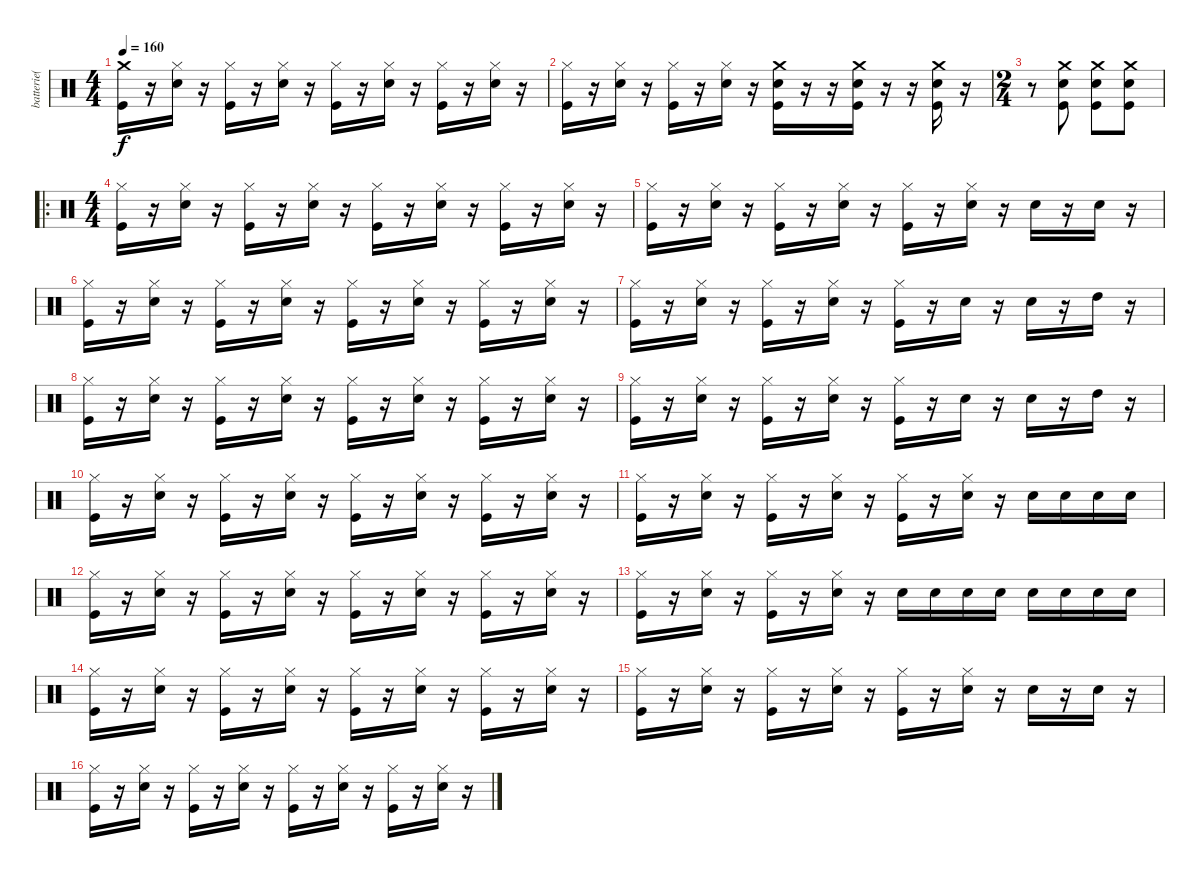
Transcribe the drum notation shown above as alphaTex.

\track ("batterie( Megger )" "batterie( ") {instrument percussion}
\staff {score}
\articulation defaults
\ts (4 4)
\tempo 160
\clef neutral
\ks c
("Crash medium (hit)" "Kick (hit)").16{dy f} r.16 ("Hi-Hat (closed)" "Snare (hit) 2").16 r.16 ("Hi-Hat (closed)" "Kick (hit)").16 r.16 ("Hi-Hat (closed)" "Snare (hit) 2").16 r.16 ("Hi-Hat (closed)" "Kick (hit)").16 r.16 ("Hi-Hat (closed)" "Snare (hit) 2").16 r.16 ("Hi-Hat (closed)" "Kick (hit)").16 r.16 ("Hi-Hat (closed)" "Snare (hit) 2").16 r.16 |
("Hi-Hat (closed)" "Kick (hit)").16 r.16 ("Hi-Hat (closed)" "Snare (hit) 2").16 r.16 ("Hi-Hat (closed)" "Kick (hit)").16 r.16 ("Hi-Hat (closed)" "Snare (hit) 2").16 r.16 ("Crash medium (hit)" "Snare (hit) 2" "Kick (hit)").16 r.16 r.16 ("Crash medium (hit)" "Snare (hit) 2" "Kick (hit)").16 r.16 r.16 ("Crash medium (hit)" "Snare (hit) 2" "Kick (hit)").16 r.16 |
\ts (2 4)
r.8 ("Crash medium (hit)" "Snare (hit) 2" "Kick (hit)").8 ("Crash medium (hit)" "Snare (hit) 2" "Kick (hit)").8 ("Crash medium (hit)" "Snare (hit) 2" "Kick (hit)").8 |
\ro
\ts (4 4)
("Hi-Hat (closed)" "Kick (hit)").16 r.16 ("Hi-Hat (closed)" "Snare (hit) 2").16 r.16 ("Hi-Hat (closed)" "Kick (hit)").16 r.16 ("Hi-Hat (closed)" "Snare (hit) 2").16 r.16 ("Hi-Hat (closed)" "Kick (hit)").16 r.16 ("Hi-Hat (closed)" "Snare (hit) 2").16 r.16 ("Hi-Hat (closed)" "Kick (hit)").16 r.16 ("Hi-Hat (closed)" "Snare (hit) 2").16 r.16 |
("Hi-Hat (closed)" "Kick (hit)").16 r.16 ("Hi-Hat (closed)" "Snare (hit) 2").16 r.16 ("Hi-Hat (closed)" "Kick (hit)").16 r.16 ("Hi-Hat (closed)" "Snare (hit) 2").16 r.16 ("Hi-Hat (closed)" "Kick (hit)").16 r.16 ("Hi-Hat (closed)" "Snare (hit) 2").16 r.16 "Snare (hit) 2".16 r.16 "Snare (hit) 2".16 r.16 |
("Hi-Hat (closed)" "Kick (hit)").16 r.16 ("Hi-Hat (closed)" "Snare (hit) 2").16 r.16 ("Hi-Hat (closed)" "Kick (hit)").16 r.16 ("Hi-Hat (closed)" "Snare (hit) 2").16 r.16 ("Hi-Hat (closed)" "Kick (hit)").16 r.16 ("Hi-Hat (closed)" "Snare (hit) 2").16 r.16 ("Hi-Hat (closed)" "Kick (hit)").16 r.16 ("Hi-Hat (closed)" "Snare (hit) 2").16 r.16 |
("Hi-Hat (closed)" "Kick (hit)").16 r.16 ("Hi-Hat (closed)" "Snare (hit) 2").16 r.16 ("Hi-Hat (closed)" "Kick (hit)").16 r.16 ("Hi-Hat (closed)" "Snare (hit) 2").16 r.16 ("Hi-Hat (closed)" "Kick (hit)").16 r.16 "Snare (hit) 2".16 r.16 "Snare (hit) 2".16 r.16 "High Tom (hit)".16 r.16 |
("Hi-Hat (closed)" "Kick (hit)").16 r.16 ("Hi-Hat (closed)" "Snare (hit) 2").16 r.16 ("Hi-Hat (closed)" "Kick (hit)").16 r.16 ("Hi-Hat (closed)" "Snare (hit) 2").16 r.16 ("Hi-Hat (closed)" "Kick (hit)").16 r.16 ("Hi-Hat (closed)" "Snare (hit) 2").16 r.16 ("Hi-Hat (closed)" "Kick (hit)").16 r.16 ("Hi-Hat (closed)" "Snare (hit) 2").16 r.16 |
("Hi-Hat (closed)" "Kick (hit)").16 r.16 ("Hi-Hat (closed)" "Snare (hit) 2").16 r.16 ("Hi-Hat (closed)" "Kick (hit)").16 r.16 ("Hi-Hat (closed)" "Snare (hit) 2").16 r.16 ("Hi-Hat (closed)" "Kick (hit)").16 r.16 "Snare (hit) 2".16 r.16 "Snare (hit) 2".16 r.16 "High Tom (hit)".16 r.16 |
("Hi-Hat (closed)" "Kick (hit)").16 r.16 ("Hi-Hat (closed)" "Snare (hit) 2").16 r.16 ("Hi-Hat (closed)" "Kick (hit)").16 r.16 ("Hi-Hat (closed)" "Snare (hit) 2").16 r.16 ("Hi-Hat (closed)" "Kick (hit)").16 r.16 ("Hi-Hat (closed)" "Snare (hit) 2").16 r.16 ("Hi-Hat (closed)" "Kick (hit)").16 r.16 ("Hi-Hat (closed)" "Snare (hit) 2").16 r.16 |
("Hi-Hat (closed)" "Kick (hit)").16 r.16 ("Hi-Hat (closed)" "Snare (hit) 2").16 r.16 ("Hi-Hat (closed)" "Kick (hit)").16 r.16 ("Hi-Hat (closed)" "Snare (hit) 2").16 r.16 ("Hi-Hat (closed)" "Kick (hit)").16 r.16 ("Hi-Hat (closed)" "Snare (hit) 2").16 r.16 "Snare (hit) 2".16 "Snare (hit) 2".16 "Snare (hit) 2".16 "Snare (hit) 2".16 |
("Hi-Hat (closed)" "Kick (hit)").16 r.16 ("Hi-Hat (closed)" "Snare (hit) 2").16 r.16 ("Hi-Hat (closed)" "Kick (hit)").16 r.16 ("Hi-Hat (closed)" "Snare (hit) 2").16 r.16 ("Hi-Hat (closed)" "Kick (hit)").16 r.16 ("Hi-Hat (closed)" "Snare (hit) 2").16 r.16 ("Hi-Hat (closed)" "Kick (hit)").16 r.16 ("Hi-Hat (closed)" "Snare (hit) 2").16 r.16 |
("Hi-Hat (closed)" "Kick (hit)").16 r.16 ("Hi-Hat (closed)" "Snare (hit) 2").16 r.16 ("Hi-Hat (closed)" "Kick (hit)").16 r.16 ("Hi-Hat (closed)" "Snare (hit) 2").16 r.16 "Snare (hit) 2".16 "Snare (hit) 2".16 "Snare (hit) 2".16 "Snare (hit) 2".16 "Snare (hit) 2".16 "Snare (hit) 2".16 "Snare (hit) 2".16 "Snare (hit) 2".16 |
("Hi-Hat (closed)" "Kick (hit)").16 r.16 ("Hi-Hat (closed)" "Snare (hit) 2").16 r.16 ("Hi-Hat (closed)" "Kick (hit)").16 r.16 ("Hi-Hat (closed)" "Snare (hit) 2").16 r.16 ("Hi-Hat (closed)" "Kick (hit)").16 r.16 ("Hi-Hat (closed)" "Snare (hit) 2").16 r.16 ("Hi-Hat (closed)" "Kick (hit)").16 r.16 ("Hi-Hat (closed)" "Snare (hit) 2").16 r.16 |
("Hi-Hat (closed)" "Kick (hit)").16 r.16 ("Hi-Hat (closed)" "Snare (hit) 2").16 r.16 ("Hi-Hat (closed)" "Kick (hit)").16 r.16 ("Hi-Hat (closed)" "Snare (hit) 2").16 r.16 ("Hi-Hat (closed)" "Kick (hit)").16 r.16 ("Hi-Hat (closed)" "Snare (hit) 2").16 r.16 "Snare (hit) 2".16 r.16 "Snare (hit) 2".16 r.16 |
("Hi-Hat (closed)" "Kick (hit)").16 r.16 ("Hi-Hat (closed)" "Snare (hit) 2").16 r.16 ("Hi-Hat (closed)" "Kick (hit)").16 r.16 ("Hi-Hat (closed)" "Snare (hit) 2").16 r.16 ("Hi-Hat (closed)" "Kick (hit)").16 r.16 ("Hi-Hat (closed)" "Snare (hit) 2").16 r.16 ("Hi-Hat (closed)" "Kick (hit)").16 r.16 ("Hi-Hat (closed)" "Snare (hit) 2").16 r.16
